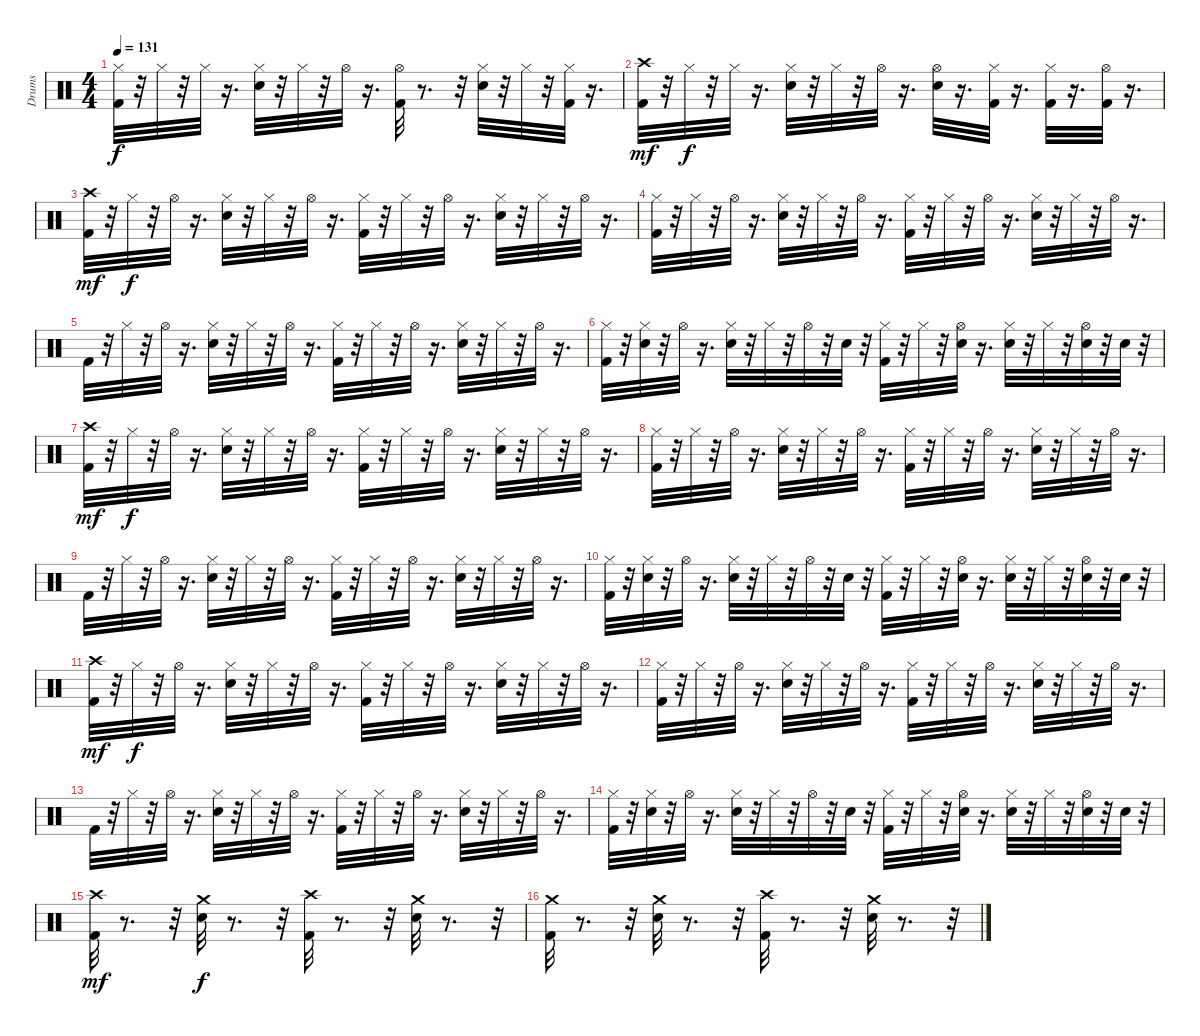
\track ("Drums" "Drums") {instrument percussion}
\staff {score}
\articulation defaults
\ts (4 4)
\tempo 131
\clef neutral
\ks c
("Kick (hit) 2" "Hi-Hat (closed)").32{dy f} r.32 "Hi-Hat (closed)".32 r.32 "Hi-Hat (closed)".32 r.16{d} ("Snare (hit) 2" "Hi-Hat (closed)").32 r.32 "Hi-Hat (closed)".32 r.32 "Hi-Hat (open)".32 r.16{d} ("Kick (hit) 2" "Hi-Hat (open)").32 r.8{d} r.32 ("Hi-Hat (closed)" "Snare (hit) 2").32 r.32 "Hi-Hat (closed)".32 r.32 ("Kick (hit) 2" "Hi-Hat (closed)").32 r.16{d} |
("Crash high (hit)" "Kick (hit) 2").32{dy mf} r.32 "Hi-Hat (closed)".32{dy f} r.32 "Hi-Hat (closed)".32 r.16{d} ("Snare (hit) 2" "Hi-Hat (closed)").32 r.32 "Hi-Hat (closed)".32 r.32 "Hi-Hat (open)".32 r.16{d} ("Snare (hit) 2" "Hi-Hat (open)").32 r.16{d} ("Hi-Hat (closed)" "Kick (hit) 2").32 r.16{d} ("Hi-Hat (closed)" "Kick (hit) 2").32 r.16{d} ("Kick (hit) 2" "Hi-Hat (open)").32 r.16{d} |
("Crash high (hit)" "Kick (hit) 2").32{dy mf} r.32 "Hi-Hat (closed)".32{dy f} r.32 "Hi-Hat (open)".32 r.16{d} ("Hi-Hat (closed)" "Snare (hit) 2").32 r.32 "Hi-Hat (closed)".32 r.32 "Hi-Hat (open)".32 r.16{d} ("Hi-Hat (closed)" "Kick (hit) 2").32 r.32 "Hi-Hat (closed)".32 r.32 "Hi-Hat (open)".32 r.16{d} ("Snare (hit) 2" "Hi-Hat (closed)").32 r.32 "Hi-Hat (closed)".32 r.32 "Hi-Hat (open)".32 r.16{d} |
("Kick (hit) 2" "Hi-Hat (closed)").32 r.32 "Hi-Hat (closed)".32 r.32 "Hi-Hat (open)".32 r.16{d} ("Snare (hit) 2" "Hi-Hat (closed)").32 r.32 "Hi-Hat (closed)".32 r.32 "Hi-Hat (open)".32 r.16{d} ("Kick (hit) 2" "Hi-Hat (closed)").32 r.32 "Hi-Hat (closed)".32 r.32 "Hi-Hat (open)".32 r.16{d} ("Hi-Hat (closed)" "Snare (hit) 2").32 r.32 "Hi-Hat (closed)".32 r.32 "Hi-Hat (open)".32 r.16{d} |
"Kick (hit) 2".32 r.32 "Hi-Hat (closed)".32 r.32 "Hi-Hat (open)".32 r.16{d} ("Hi-Hat (closed)" "Snare (hit) 2").32 r.32 "Hi-Hat (closed)".32 r.32 "Hi-Hat (open)".32 r.16{d} ("Hi-Hat (closed)" "Kick (hit) 2").32 r.32 "Hi-Hat (closed)".32 r.32 "Hi-Hat (open)".32 r.16{d} ("Snare (hit) 2" "Hi-Hat (closed)").32 r.32 "Hi-Hat (closed)".32 r.32 "Hi-Hat (open)".32 r.16{d} |
("Kick (hit) 2" "Hi-Hat (closed)").32 r.32 ("Snare (hit) 2" "Hi-Hat (closed)").32 r.32 "Hi-Hat (open)".32 r.16{d} ("Snare (hit) 2" "Hi-Hat (closed)").32 r.32 "Hi-Hat (closed)".32 r.32 "Hi-Hat (open)".32 r.32 "Snare (hit) 2".32 r.32 ("Kick (hit) 2" "Hi-Hat (closed)").32 r.32 "Hi-Hat (closed)".32 r.32 ("Snare (hit) 2" "Hi-Hat (open)").32 r.16{d} ("Hi-Hat (closed)" "Snare (hit) 2").32 r.32 "Hi-Hat (closed)".32 r.32 ("Snare (hit) 2" "Hi-Hat (open)").32 r.32 "Snare (hit) 2".32 r.32 |
("Crash high (hit)" "Kick (hit) 2").32{dy mf} r.32 "Hi-Hat (closed)".32{dy f} r.32 "Hi-Hat (open)".32 r.16{d} ("Hi-Hat (closed)" "Snare (hit) 2").32 r.32 "Hi-Hat (closed)".32 r.32 "Hi-Hat (open)".32 r.16{d} ("Hi-Hat (closed)" "Kick (hit) 2").32 r.32 "Hi-Hat (closed)".32 r.32 "Hi-Hat (open)".32 r.16{d} ("Snare (hit) 2" "Hi-Hat (closed)").32 r.32 "Hi-Hat (closed)".32 r.32 "Hi-Hat (open)".32 r.16{d} |
("Kick (hit) 2" "Hi-Hat (closed)").32 r.32 "Hi-Hat (closed)".32 r.32 "Hi-Hat (open)".32 r.16{d} ("Snare (hit) 2" "Hi-Hat (closed)").32 r.32 "Hi-Hat (closed)".32 r.32 "Hi-Hat (open)".32 r.16{d} ("Kick (hit) 2" "Hi-Hat (closed)").32 r.32 "Hi-Hat (closed)".32 r.32 "Hi-Hat (open)".32 r.16{d} ("Hi-Hat (closed)" "Snare (hit) 2").32 r.32 "Hi-Hat (closed)".32 r.32 "Hi-Hat (open)".32 r.16{d} |
"Kick (hit) 2".32 r.32 "Hi-Hat (closed)".32 r.32 "Hi-Hat (open)".32 r.16{d} ("Hi-Hat (closed)" "Snare (hit) 2").32 r.32 "Hi-Hat (closed)".32 r.32 "Hi-Hat (open)".32 r.16{d} ("Hi-Hat (closed)" "Kick (hit) 2").32 r.32 "Hi-Hat (closed)".32 r.32 "Hi-Hat (open)".32 r.16{d} ("Snare (hit) 2" "Hi-Hat (closed)").32 r.32 "Hi-Hat (closed)".32 r.32 "Hi-Hat (open)".32 r.16{d} |
("Kick (hit) 2" "Hi-Hat (closed)").32 r.32 ("Snare (hit) 2" "Hi-Hat (closed)").32 r.32 "Hi-Hat (open)".32 r.16{d} ("Snare (hit) 2" "Hi-Hat (closed)").32 r.32 "Hi-Hat (closed)".32 r.32 "Hi-Hat (open)".32 r.32 "Snare (hit) 2".32 r.32 ("Kick (hit) 2" "Hi-Hat (closed)").32 r.32 "Hi-Hat (closed)".32 r.32 ("Snare (hit) 2" "Hi-Hat (open)").32 r.16{d} ("Hi-Hat (closed)" "Snare (hit) 2").32 r.32 "Hi-Hat (closed)".32 r.32 ("Snare (hit) 2" "Hi-Hat (open)").32 r.32 "Snare (hit) 2".32 r.32 |
("Crash high (hit)" "Kick (hit) 2").32{dy mf} r.32 "Hi-Hat (closed)".32{dy f} r.32 "Hi-Hat (open)".32 r.16{d} ("Hi-Hat (closed)" "Snare (hit) 2").32 r.32 "Hi-Hat (closed)".32 r.32 "Hi-Hat (open)".32 r.16{d} ("Hi-Hat (closed)" "Kick (hit) 2").32 r.32 "Hi-Hat (closed)".32 r.32 "Hi-Hat (open)".32 r.16{d} ("Snare (hit) 2" "Hi-Hat (closed)").32 r.32 "Hi-Hat (closed)".32 r.32 "Hi-Hat (open)".32 r.16{d} |
("Kick (hit) 2" "Hi-Hat (closed)").32 r.32 "Hi-Hat (closed)".32 r.32 "Hi-Hat (open)".32 r.16{d} ("Snare (hit) 2" "Hi-Hat (closed)").32 r.32 "Hi-Hat (closed)".32 r.32 "Hi-Hat (open)".32 r.16{d} ("Kick (hit) 2" "Hi-Hat (closed)").32 r.32 "Hi-Hat (closed)".32 r.32 "Hi-Hat (open)".32 r.16{d} ("Hi-Hat (closed)" "Snare (hit) 2").32 r.32 "Hi-Hat (closed)".32 r.32 "Hi-Hat (open)".32 r.16{d} |
"Kick (hit) 2".32 r.32 "Hi-Hat (closed)".32 r.32 "Hi-Hat (open)".32 r.16{d} ("Hi-Hat (closed)" "Snare (hit) 2").32 r.32 "Hi-Hat (closed)".32 r.32 "Hi-Hat (open)".32 r.16{d} ("Hi-Hat (closed)" "Kick (hit) 2").32 r.32 "Hi-Hat (closed)".32 r.32 "Hi-Hat (open)".32 r.16{d} ("Snare (hit) 2" "Hi-Hat (closed)").32 r.32 "Hi-Hat (closed)".32 r.32 "Hi-Hat (open)".32 r.16{d} |
("Kick (hit) 2" "Hi-Hat (closed)").32 r.32 ("Snare (hit) 2" "Hi-Hat (closed)").32 r.32 "Hi-Hat (open)".32 r.16{d} ("Snare (hit) 2" "Hi-Hat (closed)").32 r.32 "Hi-Hat (closed)".32 r.32 "Hi-Hat (open)".32 r.32 "Snare (hit) 2".32 r.32 ("Kick (hit) 2" "Hi-Hat (closed)").32 r.32 "Hi-Hat (closed)".32 r.32 ("Snare (hit) 2" "Hi-Hat (open)").32 r.16{d} ("Hi-Hat (closed)" "Snare (hit) 2").32 r.32 "Hi-Hat (closed)".32 r.32 ("Snare (hit) 2" "Hi-Hat (open)").32 r.32 "Snare (hit) 2".32 r.32 |
("Crash high (hit)" "Kick (hit) 2").32{dy mf} r.8{d} r.32 ("Crash medium (hit)" "Snare (hit) 2").32{dy f} r.8{d} r.32 ("Crash high (hit)" "Kick (hit) 2").32 r.8{d} r.32 ("Crash medium (hit)" "Snare (hit) 2").32 r.8{d} r.32 |
("Crash medium (hit)" "Kick (hit) 2").32 r.8{d} r.32 ("Crash medium (hit)" "Snare (hit) 2").32 r.8{d} r.32 ("Kick (hit) 2" "Crash high (hit)").32 r.8{d} r.32 ("Crash medium (hit)" "Snare (hit) 2").32 r.8{d} r.32
